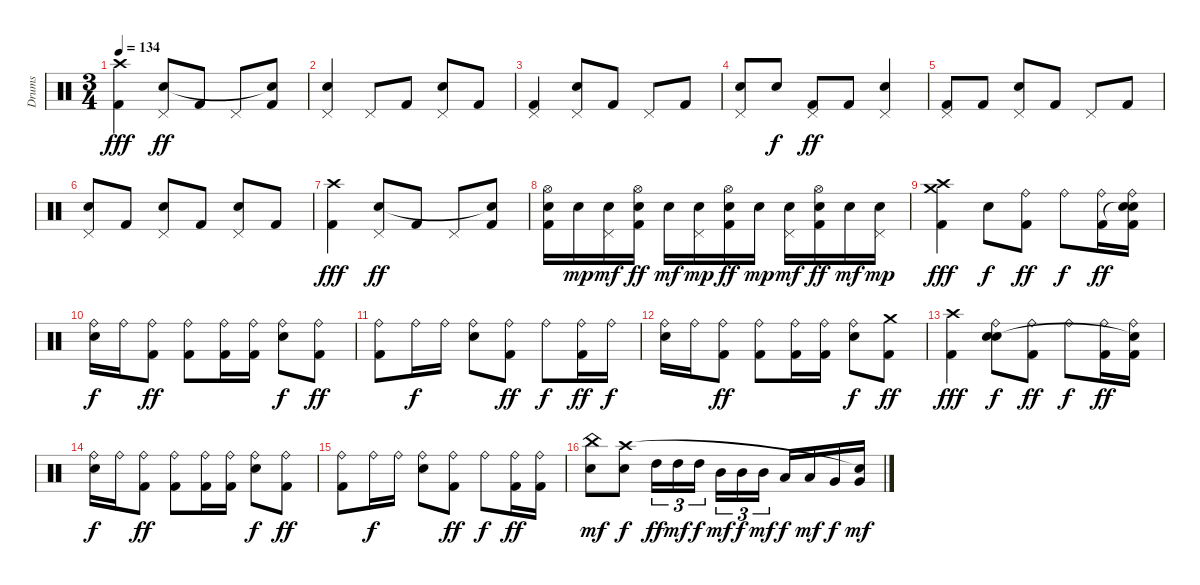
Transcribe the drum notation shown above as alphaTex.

\track ("Drums" "Drums") {instrument percussion}
\staff {score}
\articulation defaults
\ts (3 4)
\tempo 134
\clef neutral
\ks c
("Kick (hit) 2" "Crash high (hit)").4{dy fff} ("Pedal Hi-Hat (hit)" "Snare (hit) 2").8{dy ff} "Kick (hit) 2".8 "Pedal Hi-Hat (hit)".8 ("Kick (hit) 2" "Snare (hit)"{t}).8 |
("Pedal Hi-Hat (hit)" "Snare (hit) 2").4 "Pedal Hi-Hat (hit)".8 "Kick (hit) 2".8 ("Pedal Hi-Hat (hit)" "Snare (hit) 2").8 "Kick (hit) 2".8 |
("Pedal Hi-Hat (hit)" "Kick (hit) 2").4 ("Pedal Hi-Hat (hit)" "Snare (hit) 2").8 "Kick (hit) 2".8 "Pedal Hi-Hat (hit)".8 "Kick (hit) 2".8 |
("Pedal Hi-Hat (hit)" "Snare (hit) 2").8 "Snare (hit) 2".8{dy f} ("Pedal Hi-Hat (hit)" "Kick (hit) 2").8{dy ff} "Kick (hit) 2".8 ("Pedal Hi-Hat (hit)" "Snare (hit) 2").4 |
("Pedal Hi-Hat (hit)" "Kick (hit) 2").8 "Kick (hit) 2".8 ("Pedal Hi-Hat (hit)" "Snare (hit) 2").8 "Kick (hit) 2".8 "Pedal Hi-Hat (hit)".8 "Kick (hit) 2".8 |
("Pedal Hi-Hat (hit)" "Snare (hit) 2").8 "Kick (hit) 2".8 ("Pedal Hi-Hat (hit)" "Snare (hit) 2").8 "Kick (hit) 2".8 ("Pedal Hi-Hat (hit)" "Snare (hit) 2").8 "Kick (hit) 2".8 |
("Kick (hit) 2" "Crash high (hit)").4{dy fff} ("Pedal Hi-Hat (hit)" "Snare (hit) 2").8{dy ff} "Kick (hit) 2".8 "Pedal Hi-Hat (hit)".8 ("Kick (hit) 2" "Snare (hit)"{t}).8 |
("Hi-Hat (open)" "Snare (hit) 2" "Kick (hit) 2").16 "Snare (hit) 2".16{dy mp} ("Pedal Hi-Hat (hit)" "Snare (hit) 2").16{dy mf} ("Hi-Hat (open)" "Snare (hit) 2" "Kick (hit) 2").16{dy ff} "Snare (hit) 2".16{dy mf} ("Pedal Hi-Hat (hit)" "Snare (hit) 2").16{dy mp} ("Hi-Hat (open)" "Snare (hit) 2" "Kick (hit) 2").16{dy ff} "Snare (hit) 2".16{dy mp} ("Pedal Hi-Hat (hit)" "Snare (hit) 2").16{dy mf} ("Hi-Hat (open)" "Snare (hit) 2" "Kick (hit) 2").16{dy ff} "Snare (hit) 2".16{dy mf} ("Pedal Hi-Hat (hit)" "Snare (hit) 2").16{dy mp} |
("Crash medium (hit)" "Kick (hit) 2" "Crash high (hit)").4{dy fff} "Snare (hit) 2".8{dy f} ("Ride (bell)" "Kick (hit) 2").8{dy ff} "Ride (bell)".8{dy f} ("Ride (bell)" "Kick (hit) 2").16{dy ff} ("Ride (bell)" "Snare (hit)"{t} "Kick (hit) 2" "Snare (hit)").16 |
("Ride (bell)" "Snare (hit) 2").16{dy f} "Ride (bell)".16 ("Ride (bell)" "Kick (hit) 2").8{dy ff} ("Ride (bell)" "Kick (hit) 2").8 ("Ride (bell)" "Kick (hit) 2").16 ("Ride (bell)" "Kick (hit) 2").16 ("Ride (bell)" "Snare (hit) 2").8{dy f} ("Ride (bell)" "Kick (hit) 2").8{dy ff} |
("Ride (bell)" "Kick (hit) 2").8 "Ride (bell)".16{dy f} "Ride (bell)".16 ("Ride (bell)" "Snare (hit) 2").8 ("Ride (bell)" "Kick (hit) 2").8{dy ff} "Ride (bell)".8{dy f} ("Ride (bell)" "Kick (hit) 2").16{dy ff} "Ride (bell)".16{dy f} |
("Ride (bell)" "Snare (hit) 2").16 "Ride (bell)".16 ("Ride (bell)" "Kick (hit) 2").8{dy ff} ("Ride (bell)" "Kick (hit) 2").8 ("Ride (bell)" "Kick (hit) 2").16 ("Ride (bell)" "Kick (hit) 2").16 ("Ride (bell)" "Snare (hit) 2").8{dy f} ("Crash medium (hit)" "Kick (hit) 2").8{dy ff} |
("Kick (hit) 2" "Crash high (hit)").4{dy fff} ("Ride (bell)" "Snare (hit) 2" "Snare (hit)").8{dy f} ("Ride (bell)" "Kick (hit) 2").8{dy ff} "Ride (bell)".8{dy f} ("Ride (bell)" "Kick (hit) 2").16{dy ff} ("Ride (bell)" "Kick (hit) 2" "Snare (hit)"{t}).16 |
("Ride (bell)" "Snare (hit) 2").16{dy f} "Ride (bell)".16 ("Ride (bell)" "Kick (hit) 2").8{dy ff} ("Ride (bell)" "Kick (hit) 2").8 ("Ride (bell)" "Kick (hit) 2").16 ("Ride (bell)" "Kick (hit) 2").16 ("Ride (bell)" "Snare (hit) 2").8{dy f} ("Ride (bell)" "Kick (hit) 2").8{dy ff} |
("Ride (bell)" "Kick (hit) 2").8 "Ride (bell)".16{dy f} "Ride (bell)".16 ("Ride (bell)" "Snare (hit) 2").8 ("Ride (bell)" "Kick (hit) 2").8{dy ff} "Ride (bell)".8{dy f} ("Ride (bell)" "Kick (hit) 2").16{dy ff} ("Ride (bell)" "Kick (hit) 2").16 |
("China (hit)" "Snare (hit) 2").8{dy mf} ("Snare (hit) 2" "Crash high (hit)").8{dy f} "High Tom (hit)".16{tu (3 2) dy ff} "High Tom (hit)".16{tu (3 2) dy mf} "High Tom (hit)".16{tu (3 2) dy f} "Mid Tom (hit)".16{tu (3 2) dy mf} "Mid Tom (hit)".16{tu (3 2) dy f} "Mid Tom (hit)".16{tu (3 2) dy mf} "Low Tom (hit)".16{dy f} "Low Tom (hit)".16{dy mf} "Very Low Tom (hit)".16{dy f} ("Very Low Tom (hit)" "Snare (hit)"{t}).16{dy mf}
